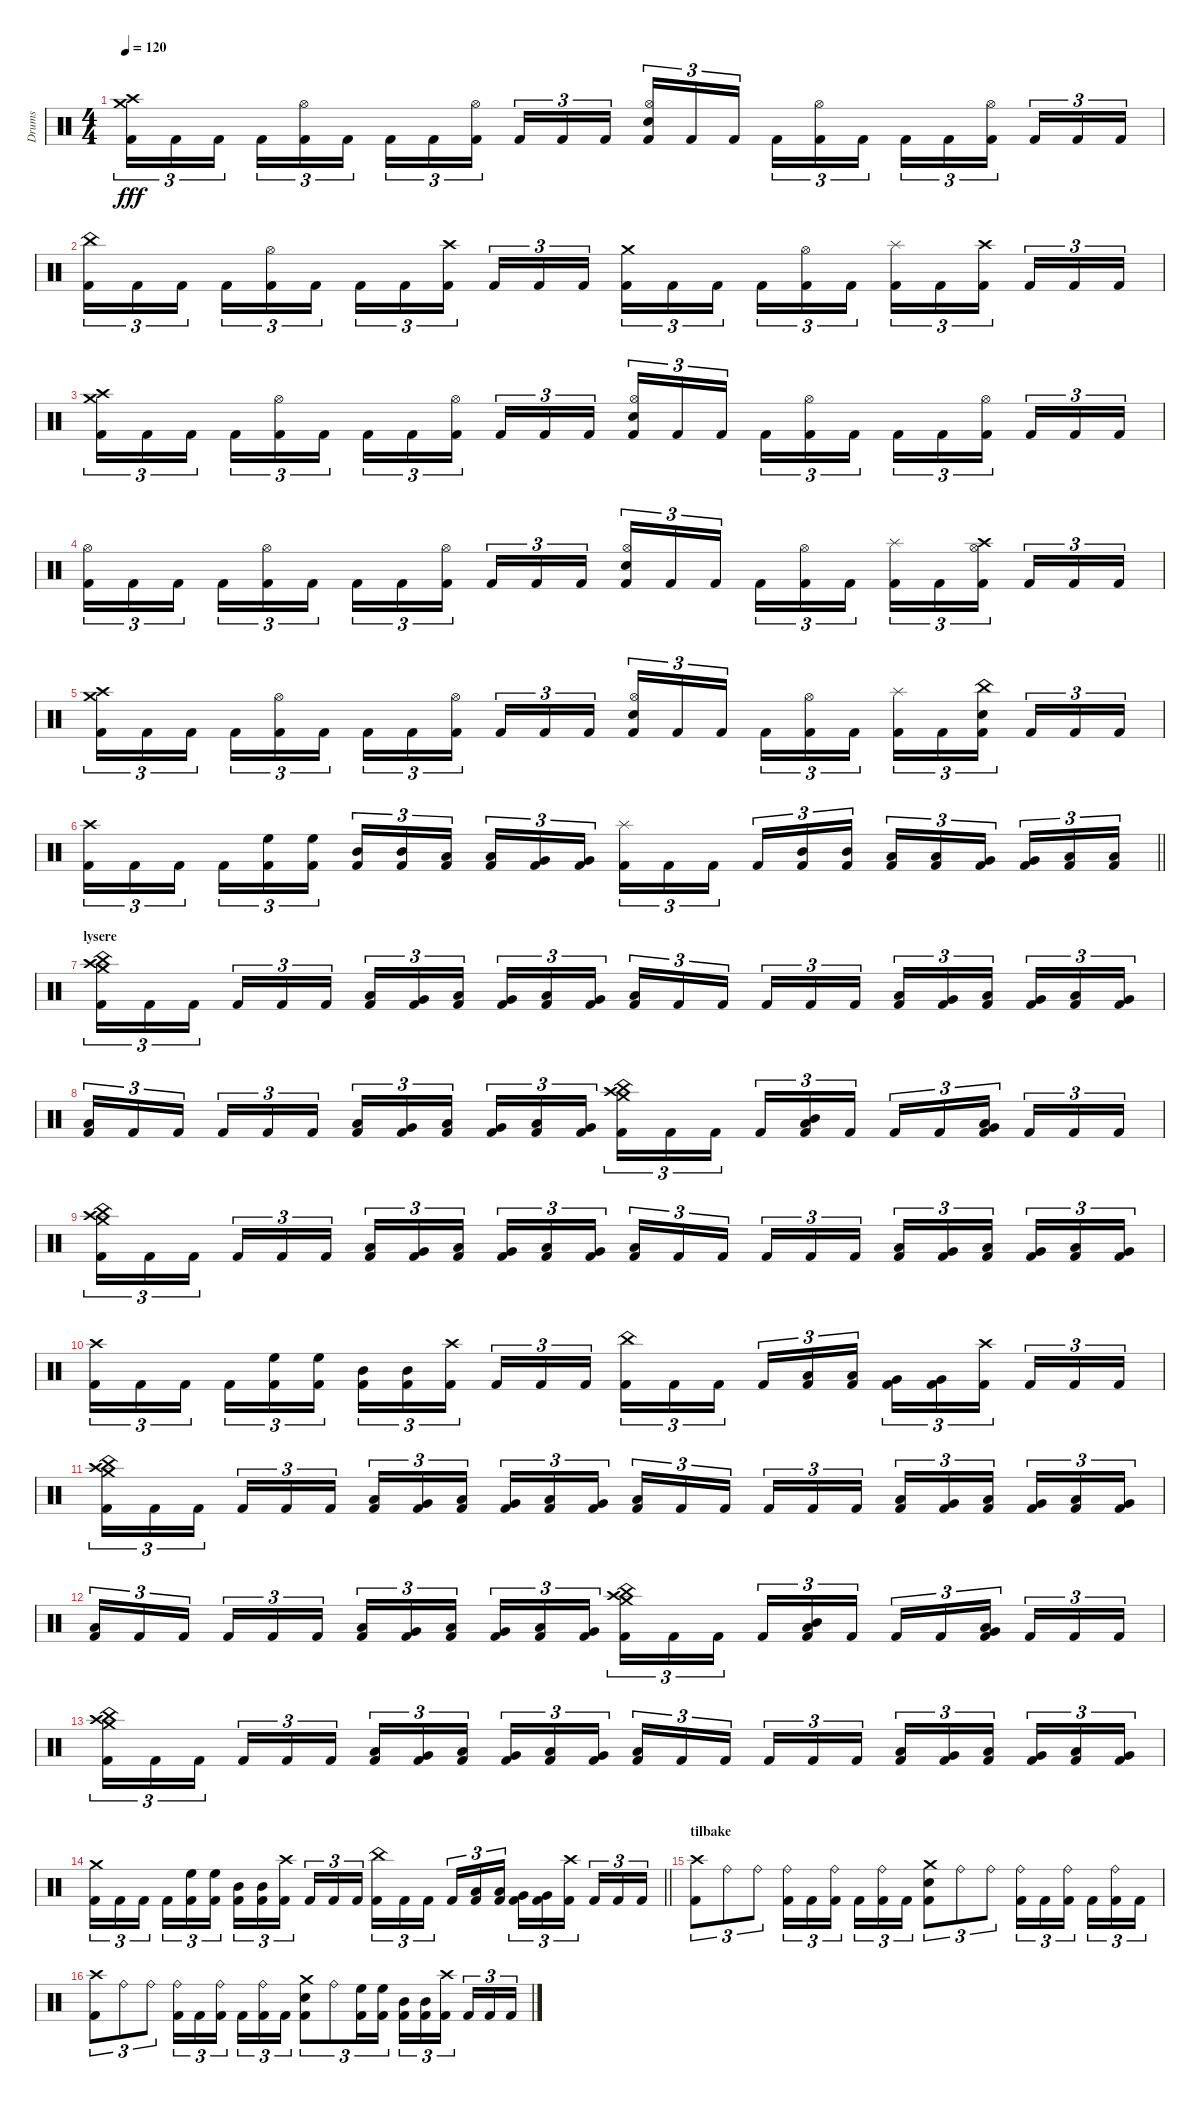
\track ("Drums" "Drums") {instrument percussion}
\staff {score}
\articulation defaults
\ts (4 4)
\tempo 120
\clef neutral
\ks c
("Crash medium (hit)" "Crash high (hit)" "Kick (hit) 2").16{tu (3 2) dy fff} "Kick (hit) 2".16{tu (3 2)} "Kick (hit) 2".16{tu (3 2) beam splitsecondary} "Kick (hit) 2".16{tu (3 2)} ("Hi-Hat (open)" "Kick (hit) 2").16{tu (3 2)} "Kick (hit) 2".16{tu (3 2)} "Kick (hit) 2".16{tu (3 2)} "Kick (hit) 2".16{tu (3 2)} ("Hi-Hat (open)" "Kick (hit) 2").16{tu (3 2) beam splitsecondary} "Kick (hit) 2".16{tu (3 2)} "Kick (hit) 2".16{tu (3 2)} "Kick (hit) 2".16{tu (3 2)} ("Snare (hit) 2" "Hi-Hat (open)" "Kick (hit) 2").16{tu (3 2)} "Kick (hit) 2".16{tu (3 2)} "Kick (hit) 2".16{tu (3 2) beam splitsecondary} "Kick (hit) 2".16{tu (3 2)} ("Hi-Hat (open)" "Kick (hit) 2").16{tu (3 2)} "Kick (hit) 2".16{tu (3 2)} "Kick (hit) 2".16{tu (3 2)} "Kick (hit) 2".16{tu (3 2)} ("Hi-Hat (open)" "Kick (hit) 2").16{tu (3 2) beam splitsecondary} "Kick (hit) 2".16{tu (3 2)} "Kick (hit) 2".16{tu (3 2)} "Kick (hit) 2".16{tu (3 2)} |
("China (hit)" "Kick (hit) 2").16{tu (3 2)} "Kick (hit) 2".16{tu (3 2)} "Kick (hit) 2".16{tu (3 2) beam splitsecondary} "Kick (hit) 2".16{tu (3 2)} ("Hi-Hat (open)" "Kick (hit) 2").16{tu (3 2)} "Kick (hit) 2".16{tu (3 2)} "Kick (hit) 2".16{tu (3 2)} "Kick (hit) 2".16{tu (3 2)} ("Crash high (hit)" "Kick (hit) 2").16{tu (3 2) beam splitsecondary} "Kick (hit) 2".16{tu (3 2)} "Kick (hit) 2".16{tu (3 2)} "Kick (hit) 2".16{tu (3 2)} ("Crash medium (hit)" "Kick (hit) 2").16{tu (3 2)} "Kick (hit) 2".16{tu (3 2)} "Kick (hit) 2".16{tu (3 2) beam splitsecondary} "Kick (hit) 2".16{tu (3 2)} ("Hi-Hat (open)" "Kick (hit) 2").16{tu (3 2)} "Kick (hit) 2".16{tu (3 2)} ("Splash (hit)" "Kick (hit) 2").16{tu (3 2)} "Kick (hit) 2".16{tu (3 2)} ("Crash high (hit)" "Kick (hit) 2").16{tu (3 2) beam splitsecondary} "Kick (hit) 2".16{tu (3 2)} "Kick (hit) 2".16{tu (3 2)} "Kick (hit) 2".16{tu (3 2)} |
("Crash medium (hit)" "Crash high (hit)" "Kick (hit) 2").16{tu (3 2)} "Kick (hit) 2".16{tu (3 2)} "Kick (hit) 2".16{tu (3 2) beam splitsecondary} "Kick (hit) 2".16{tu (3 2)} ("Hi-Hat (open)" "Kick (hit) 2").16{tu (3 2)} "Kick (hit) 2".16{tu (3 2)} "Kick (hit) 2".16{tu (3 2)} "Kick (hit) 2".16{tu (3 2)} ("Hi-Hat (open)" "Kick (hit) 2").16{tu (3 2) beam splitsecondary} "Kick (hit) 2".16{tu (3 2)} "Kick (hit) 2".16{tu (3 2)} "Kick (hit) 2".16{tu (3 2)} ("Snare (hit) 2" "Hi-Hat (open)" "Kick (hit) 2").16{tu (3 2)} "Kick (hit) 2".16{tu (3 2)} "Kick (hit) 2".16{tu (3 2) beam splitsecondary} "Kick (hit) 2".16{tu (3 2)} ("Hi-Hat (open)" "Kick (hit) 2").16{tu (3 2)} "Kick (hit) 2".16{tu (3 2)} "Kick (hit) 2".16{tu (3 2)} "Kick (hit) 2".16{tu (3 2)} ("Hi-Hat (open)" "Kick (hit) 2").16{tu (3 2) beam splitsecondary} "Kick (hit) 2".16{tu (3 2)} "Kick (hit) 2".16{tu (3 2)} "Kick (hit) 2".16{tu (3 2)} |
("Hi-Hat (open)" "Kick (hit) 2").16{tu (3 2)} "Kick (hit) 2".16{tu (3 2)} "Kick (hit) 2".16{tu (3 2) beam splitsecondary} "Kick (hit) 2".16{tu (3 2)} ("Hi-Hat (open)" "Kick (hit) 2").16{tu (3 2)} "Kick (hit) 2".16{tu (3 2)} "Kick (hit) 2".16{tu (3 2)} "Kick (hit) 2".16{tu (3 2)} ("Hi-Hat (open)" "Kick (hit) 2").16{tu (3 2) beam splitsecondary} "Kick (hit) 2".16{tu (3 2)} "Kick (hit) 2".16{tu (3 2)} "Kick (hit) 2".16{tu (3 2)} ("Snare (hit) 2" "Hi-Hat (open)" "Kick (hit) 2").16{tu (3 2)} "Kick (hit) 2".16{tu (3 2)} "Kick (hit) 2".16{tu (3 2) beam splitsecondary} "Kick (hit) 2".16{tu (3 2)} ("Hi-Hat (open)" "Kick (hit) 2").16{tu (3 2)} "Kick (hit) 2".16{tu (3 2)} ("Splash (hit)" "Kick (hit) 2").16{tu (3 2)} "Kick (hit) 2".16{tu (3 2)} ("Crash high (hit)" "Hi-Hat (open)" "Kick (hit) 2").16{tu (3 2) beam splitsecondary} "Kick (hit) 2".16{tu (3 2)} "Kick (hit) 2".16{tu (3 2)} "Kick (hit) 2".16{tu (3 2)} |
("Crash medium (hit)" "Crash high (hit)" "Kick (hit) 2").16{tu (3 2)} "Kick (hit) 2".16{tu (3 2)} "Kick (hit) 2".16{tu (3 2) beam splitsecondary} "Kick (hit) 2".16{tu (3 2)} ("Hi-Hat (open)" "Kick (hit) 2").16{tu (3 2)} "Kick (hit) 2".16{tu (3 2)} "Kick (hit) 2".16{tu (3 2)} "Kick (hit) 2".16{tu (3 2)} ("Hi-Hat (open)" "Kick (hit) 2").16{tu (3 2) beam splitsecondary} "Kick (hit) 2".16{tu (3 2)} "Kick (hit) 2".16{tu (3 2)} "Kick (hit) 2".16{tu (3 2)} ("Snare (hit) 2" "Hi-Hat (open)" "Kick (hit) 2").16{tu (3 2)} "Kick (hit) 2".16{tu (3 2)} "Kick (hit) 2".16{tu (3 2) beam splitsecondary} "Kick (hit) 2".16{tu (3 2)} ("Hi-Hat (open)" "Kick (hit) 2").16{tu (3 2)} "Kick (hit) 2".16{tu (3 2)} ("Splash (hit)" "Kick (hit) 2").16{tu (3 2)} "Kick (hit) 2".16{tu (3 2)} ("China (hit)" "Snare (hit) 2" "Kick (hit) 2").16{tu (3 2) beam splitsecondary} "Kick (hit) 2".16{tu (3 2)} "Kick (hit) 2".16{tu (3 2)} "Kick (hit) 2".16{tu (3 2)} |
\barLineRight lightlight
("Crash high (hit)" "Kick (hit) 2").16{tu (3 2)} "Kick (hit) 2".16{tu (3 2)} "Kick (hit) 2".16{tu (3 2) beam splitsecondary} "Kick (hit) 2".16{tu (3 2)} ("High Floor Tom (hit)" "Kick (hit) 2").16{tu (3 2)} ("High Floor Tom (hit)" "Kick (hit) 2").16{tu (3 2)} ("Mid Tom (hit)" "Kick (hit) 2").16{tu (3 2)} ("Mid Tom (hit)" "Kick (hit) 2").16{tu (3 2)} ("Low Tom (hit)" "Kick (hit) 2").16{tu (3 2) beam splitsecondary} ("Low Tom (hit)" "Kick (hit) 2").16{tu (3 2)} ("Very Low Tom (hit)" "Kick (hit) 2").16{tu (3 2)} ("Very Low Tom (hit)" "Kick (hit) 2").16{tu (3 2)} ("Splash (hit)" "Kick (hit) 2").16{tu (3 2)} "Kick (hit) 2".16{tu (3 2)} "Kick (hit) 2".16{tu (3 2) beam splitsecondary} "Kick (hit) 2".16{tu (3 2)} ("Mid Tom (hit)" "Kick (hit) 2").16{tu (3 2)} ("Mid Tom (hit)" "Kick (hit) 2").16{tu (3 2)} ("Low Tom (hit)" "Kick (hit) 2").16{tu (3 2)} ("Low Tom (hit)" "Kick (hit) 2").16{tu (3 2)} ("Very Low Tom (hit)" "Kick (hit) 2").16{tu (3 2) beam splitsecondary} ("Very Low Tom (hit)" "Kick (hit) 2").16{tu (3 2)} ("Low Floor Tom (hit)" "Kick (hit) 2").16{tu (3 2)} ("Low Floor Tom (hit)" "Kick (hit) 2").16{tu (3 2)} |
\section ("" "lysere")
("China (hit)" "Crash medium (hit)" "Crash high (hit)" "Kick (hit) 2").16{tu (3 2)} "Kick (hit) 2".16{tu (3 2)} "Kick (hit) 2".16{tu (3 2) beam splitsecondary} "Kick (hit) 2".16{tu (3 2)} "Kick (hit) 2".16{tu (3 2)} "Kick (hit) 2".16{tu (3 2)} ("Low Floor Tom (hit)" "Kick (hit) 2").16{tu (3 2)} ("Very Low Tom (hit)" "Kick (hit) 2").16{tu (3 2)} ("Low Floor Tom (hit)" "Kick (hit) 2").16{tu (3 2) beam splitsecondary} ("Very Low Tom (hit)" "Kick (hit) 2").16{tu (3 2)} ("Low Floor Tom (hit)" "Kick (hit) 2").16{tu (3 2)} ("Very Low Tom (hit)" "Kick (hit) 2").16{tu (3 2)} ("Low Floor Tom (hit)" "Kick (hit) 2").16{tu (3 2)} "Kick (hit) 2".16{tu (3 2)} "Kick (hit) 2".16{tu (3 2) beam splitsecondary} "Kick (hit) 2".16{tu (3 2)} "Kick (hit) 2".16{tu (3 2)} "Kick (hit) 2".16{tu (3 2)} ("Low Floor Tom (hit)" "Kick (hit) 2").16{tu (3 2)} ("Very Low Tom (hit)" "Kick (hit) 2").16{tu (3 2)} ("Low Floor Tom (hit)" "Kick (hit) 2").16{tu (3 2) beam splitsecondary} ("Very Low Tom (hit)" "Kick (hit) 2").16{tu (3 2)} ("Low Floor Tom (hit)" "Kick (hit) 2").16{tu (3 2)} ("Very Low Tom (hit)" "Kick (hit) 2").16{tu (3 2)} |
("Low Floor Tom (hit)" "Kick (hit) 2").16{tu (3 2)} "Kick (hit) 2".16{tu (3 2)} "Kick (hit) 2".16{tu (3 2) beam splitsecondary} "Kick (hit) 2".16{tu (3 2)} "Kick (hit) 2".16{tu (3 2)} "Kick (hit) 2".16{tu (3 2)} ("Low Floor Tom (hit)" "Kick (hit) 2").16{tu (3 2)} ("Very Low Tom (hit)" "Kick (hit) 2").16{tu (3 2)} ("Low Floor Tom (hit)" "Kick (hit) 2").16{tu (3 2) beam splitsecondary} ("Very Low Tom (hit)" "Kick (hit) 2").16{tu (3 2)} ("Low Floor Tom (hit)" "Kick (hit) 2").16{tu (3 2)} ("Very Low Tom (hit)" "Kick (hit) 2").16{tu (3 2)} ("China (hit)" "Crash medium (hit)" "Crash high (hit)" "Kick (hit) 2").16{tu (3 2)} "Kick (hit) 2".16{tu (3 2)} "Kick (hit) 2".16{tu (3 2) beam splitsecondary} "Kick (hit) 2".16{tu (3 2)} ("Mid Tom (hit)" "Low Tom (hit)" "Kick (hit) 2").16{tu (3 2)} "Kick (hit) 2".16{tu (3 2)} "Kick (hit) 2".16{tu (3 2)} "Kick (hit) 2".16{tu (3 2)} ("Low Tom (hit)" "Very Low Tom (hit)" "Kick (hit) 2").16{tu (3 2) beam splitsecondary} "Kick (hit) 2".16{tu (3 2)} "Kick (hit) 2".16{tu (3 2)} "Kick (hit) 2".16{tu (3 2)} |
("China (hit)" "Crash medium (hit)" "Crash high (hit)" "Kick (hit) 2").16{tu (3 2)} "Kick (hit) 2".16{tu (3 2)} "Kick (hit) 2".16{tu (3 2) beam splitsecondary} "Kick (hit) 2".16{tu (3 2)} "Kick (hit) 2".16{tu (3 2)} "Kick (hit) 2".16{tu (3 2)} ("Low Floor Tom (hit)" "Kick (hit) 2").16{tu (3 2)} ("Very Low Tom (hit)" "Kick (hit) 2").16{tu (3 2)} ("Low Floor Tom (hit)" "Kick (hit) 2").16{tu (3 2) beam splitsecondary} ("Very Low Tom (hit)" "Kick (hit) 2").16{tu (3 2)} ("Low Floor Tom (hit)" "Kick (hit) 2").16{tu (3 2)} ("Very Low Tom (hit)" "Kick (hit) 2").16{tu (3 2)} ("Low Floor Tom (hit)" "Kick (hit) 2").16{tu (3 2)} "Kick (hit) 2".16{tu (3 2)} "Kick (hit) 2".16{tu (3 2) beam splitsecondary} "Kick (hit) 2".16{tu (3 2)} "Kick (hit) 2".16{tu (3 2)} "Kick (hit) 2".16{tu (3 2)} ("Low Floor Tom (hit)" "Kick (hit) 2").16{tu (3 2)} ("Very Low Tom (hit)" "Kick (hit) 2").16{tu (3 2)} ("Low Floor Tom (hit)" "Kick (hit) 2").16{tu (3 2) beam splitsecondary} ("Very Low Tom (hit)" "Kick (hit) 2").16{tu (3 2)} ("Low Floor Tom (hit)" "Kick (hit) 2").16{tu (3 2)} ("Very Low Tom (hit)" "Kick (hit) 2").16{tu (3 2)} |
("Crash high (hit)" "Kick (hit) 2").16{tu (3 2)} "Kick (hit) 2".16{tu (3 2)} "Kick (hit) 2".16{tu (3 2) beam splitsecondary} "Kick (hit) 2".16{tu (3 2)} ("High Floor Tom (hit)" "Kick (hit) 2").16{tu (3 2)} ("High Floor Tom (hit)" "Kick (hit) 2").16{tu (3 2)} ("Mid Tom (hit)" "Kick (hit) 2").16{tu (3 2)} ("Mid Tom (hit)" "Kick (hit) 2").16{tu (3 2)} ("Crash high (hit)" "Kick (hit) 2").16{tu (3 2) beam splitsecondary} "Kick (hit) 2".16{tu (3 2)} "Kick (hit) 2".16{tu (3 2)} "Kick (hit) 2".16{tu (3 2)} ("China (hit)" "Kick (hit) 2").16{tu (3 2)} "Kick (hit) 2".16{tu (3 2)} "Kick (hit) 2".16{tu (3 2) beam splitsecondary} "Kick (hit) 2".16{tu (3 2)} ("Low Tom (hit)" "Kick (hit) 2").16{tu (3 2)} ("Low Tom (hit)" "Kick (hit) 2").16{tu (3 2)} ("Very Low Tom (hit)" "Kick (hit) 2").16{tu (3 2)} ("Very Low Tom (hit)" "Kick (hit) 2").16{tu (3 2)} ("Crash high (hit)" "Kick (hit) 2").16{tu (3 2) beam splitsecondary} "Kick (hit) 2".16{tu (3 2)} "Kick (hit) 2".16{tu (3 2)} "Kick (hit) 2".16{tu (3 2)} |
("China (hit)" "Crash medium (hit)" "Crash high (hit)" "Kick (hit) 2").16{tu (3 2)} "Kick (hit) 2".16{tu (3 2)} "Kick (hit) 2".16{tu (3 2) beam splitsecondary} "Kick (hit) 2".16{tu (3 2)} "Kick (hit) 2".16{tu (3 2)} "Kick (hit) 2".16{tu (3 2)} ("Low Floor Tom (hit)" "Kick (hit) 2").16{tu (3 2)} ("Very Low Tom (hit)" "Kick (hit) 2").16{tu (3 2)} ("Low Floor Tom (hit)" "Kick (hit) 2").16{tu (3 2) beam splitsecondary} ("Very Low Tom (hit)" "Kick (hit) 2").16{tu (3 2)} ("Low Floor Tom (hit)" "Kick (hit) 2").16{tu (3 2)} ("Very Low Tom (hit)" "Kick (hit) 2").16{tu (3 2)} ("Low Floor Tom (hit)" "Kick (hit) 2").16{tu (3 2)} "Kick (hit) 2".16{tu (3 2)} "Kick (hit) 2".16{tu (3 2) beam splitsecondary} "Kick (hit) 2".16{tu (3 2)} "Kick (hit) 2".16{tu (3 2)} "Kick (hit) 2".16{tu (3 2)} ("Low Floor Tom (hit)" "Kick (hit) 2").16{tu (3 2)} ("Very Low Tom (hit)" "Kick (hit) 2").16{tu (3 2)} ("Low Floor Tom (hit)" "Kick (hit) 2").16{tu (3 2) beam splitsecondary} ("Very Low Tom (hit)" "Kick (hit) 2").16{tu (3 2)} ("Low Floor Tom (hit)" "Kick (hit) 2").16{tu (3 2)} ("Very Low Tom (hit)" "Kick (hit) 2").16{tu (3 2)} |
("Low Floor Tom (hit)" "Kick (hit) 2").16{tu (3 2)} "Kick (hit) 2".16{tu (3 2)} "Kick (hit) 2".16{tu (3 2) beam splitsecondary} "Kick (hit) 2".16{tu (3 2)} "Kick (hit) 2".16{tu (3 2)} "Kick (hit) 2".16{tu (3 2)} ("Low Floor Tom (hit)" "Kick (hit) 2").16{tu (3 2)} ("Very Low Tom (hit)" "Kick (hit) 2").16{tu (3 2)} ("Low Floor Tom (hit)" "Kick (hit) 2").16{tu (3 2) beam splitsecondary} ("Very Low Tom (hit)" "Kick (hit) 2").16{tu (3 2)} ("Low Floor Tom (hit)" "Kick (hit) 2").16{tu (3 2)} ("Very Low Tom (hit)" "Kick (hit) 2").16{tu (3 2)} ("China (hit)" "Crash medium (hit)" "Crash high (hit)" "Kick (hit) 2").16{tu (3 2)} "Kick (hit) 2".16{tu (3 2)} "Kick (hit) 2".16{tu (3 2) beam splitsecondary} "Kick (hit) 2".16{tu (3 2)} ("Mid Tom (hit)" "Low Tom (hit)" "Kick (hit) 2").16{tu (3 2)} "Kick (hit) 2".16{tu (3 2)} "Kick (hit) 2".16{tu (3 2)} "Kick (hit) 2".16{tu (3 2)} ("Low Tom (hit)" "Very Low Tom (hit)" "Kick (hit) 2").16{tu (3 2) beam splitsecondary} "Kick (hit) 2".16{tu (3 2)} "Kick (hit) 2".16{tu (3 2)} "Kick (hit) 2".16{tu (3 2)} |
("China (hit)" "Crash medium (hit)" "Crash high (hit)" "Kick (hit) 2").16{tu (3 2)} "Kick (hit) 2".16{tu (3 2)} "Kick (hit) 2".16{tu (3 2) beam splitsecondary} "Kick (hit) 2".16{tu (3 2)} "Kick (hit) 2".16{tu (3 2)} "Kick (hit) 2".16{tu (3 2)} ("Low Floor Tom (hit)" "Kick (hit) 2").16{tu (3 2)} ("Very Low Tom (hit)" "Kick (hit) 2").16{tu (3 2)} ("Low Floor Tom (hit)" "Kick (hit) 2").16{tu (3 2) beam splitsecondary} ("Very Low Tom (hit)" "Kick (hit) 2").16{tu (3 2)} ("Low Floor Tom (hit)" "Kick (hit) 2").16{tu (3 2)} ("Very Low Tom (hit)" "Kick (hit) 2").16{tu (3 2)} ("Low Floor Tom (hit)" "Kick (hit) 2").16{tu (3 2)} "Kick (hit) 2".16{tu (3 2)} "Kick (hit) 2".16{tu (3 2) beam splitsecondary} "Kick (hit) 2".16{tu (3 2)} "Kick (hit) 2".16{tu (3 2)} "Kick (hit) 2".16{tu (3 2)} ("Low Floor Tom (hit)" "Kick (hit) 2").16{tu (3 2)} ("Very Low Tom (hit)" "Kick (hit) 2").16{tu (3 2)} ("Low Floor Tom (hit)" "Kick (hit) 2").16{tu (3 2) beam splitsecondary} ("Very Low Tom (hit)" "Kick (hit) 2").16{tu (3 2)} ("Low Floor Tom (hit)" "Kick (hit) 2").16{tu (3 2)} ("Very Low Tom (hit)" "Kick (hit) 2").16{tu (3 2)} |
\barLineRight lightlight
("Crash medium (hit)" "Kick (hit) 2").16{tu (3 2)} "Kick (hit) 2".16{tu (3 2)} "Kick (hit) 2".16{tu (3 2) beam splitsecondary} "Kick (hit) 2".16{tu (3 2)} ("High Floor Tom (hit)" "Kick (hit) 2").16{tu (3 2)} ("High Floor Tom (hit)" "Kick (hit) 2").16{tu (3 2)} ("Mid Tom (hit)" "Kick (hit) 2").16{tu (3 2)} ("Mid Tom (hit)" "Kick (hit) 2").16{tu (3 2)} ("Crash high (hit)" "Kick (hit) 2").16{tu (3 2) beam splitsecondary} "Kick (hit) 2".16{tu (3 2)} "Kick (hit) 2".16{tu (3 2)} "Kick (hit) 2".16{tu (3 2)} ("China (hit)" "Kick (hit) 2").16{tu (3 2)} "Kick (hit) 2".16{tu (3 2)} "Kick (hit) 2".16{tu (3 2) beam splitsecondary} "Kick (hit) 2".16{tu (3 2)} ("Low Tom (hit)" "Kick (hit) 2").16{tu (3 2)} ("Low Tom (hit)" "Kick (hit) 2").16{tu (3 2)} ("Very Low Tom (hit)" "Kick (hit) 2").16{tu (3 2)} ("Very Low Tom (hit)" "Kick (hit) 2").16{tu (3 2)} ("Crash high (hit)" "Kick (hit) 2").16{tu (3 2) beam splitsecondary} "Kick (hit) 2".16{tu (3 2)} "Kick (hit) 2".16{tu (3 2)} "Kick (hit) 2".16{tu (3 2)} |
\section ("" "tilbake")
("Crash high (hit)" "Kick (hit) 2").8{tu (3 2)} "Ride (bell)".8{tu (3 2)} "Ride (bell)".8{tu (3 2)} ("Ride (bell)" "Kick (hit) 2").16{tu (3 2)} "Kick (hit) 2".16{tu (3 2)} ("Ride (bell)" "Kick (hit) 2").16{tu (3 2) beam splitsecondary} "Kick (hit) 2".16{tu (3 2)} ("Ride (bell)" "Kick (hit) 2").16{tu (3 2)} "Kick (hit) 2".16{tu (3 2)} ("Crash medium (hit)" "Snare (hit) 2" "Kick (hit) 2").8{tu (3 2)} "Ride (bell)".8{tu (3 2)} "Ride (bell)".8{tu (3 2)} ("Ride (bell)" "Kick (hit) 2").16{tu (3 2)} "Kick (hit) 2".16{tu (3 2)} ("Ride (bell)" "Kick (hit) 2").16{tu (3 2) beam splitsecondary} "Kick (hit) 2".16{tu (3 2)} ("Ride (bell)" "Kick (hit) 2").16{tu (3 2)} "Kick (hit) 2".16{tu (3 2)} |
("Crash high (hit)" "Kick (hit) 2").8{tu (3 2)} "Ride (bell)".8{tu (3 2)} "Ride (bell)".8{tu (3 2)} ("Ride (bell)" "Kick (hit) 2").16{tu (3 2)} "Kick (hit) 2".16{tu (3 2)} ("Ride (bell)" "Kick (hit) 2").16{tu (3 2) beam splitsecondary} "Kick (hit) 2".16{tu (3 2)} ("Ride (bell)" "Kick (hit) 2").16{tu (3 2)} "Kick (hit) 2".16{tu (3 2)} ("Crash medium (hit)" "Snare (hit) 2" "Kick (hit) 2").8{tu (3 2)} "Ride (bell)".8{tu (3 2)} ("High Floor Tom (hit)" "Kick (hit) 2").16{tu (3 2)} ("High Floor Tom (hit)" "Kick (hit) 2").16{tu (3 2)} ("Mid Tom (hit)" "Kick (hit) 2").16{tu (3 2)} ("Mid Tom (hit)" "Kick (hit) 2").16{tu (3 2)} ("Crash high (hit)" "Kick (hit) 2").16{tu (3 2) beam splitsecondary} "Kick (hit) 2".16{tu (3 2)} "Kick (hit) 2".16{tu (3 2)} "Kick (hit) 2".16{tu (3 2)}
